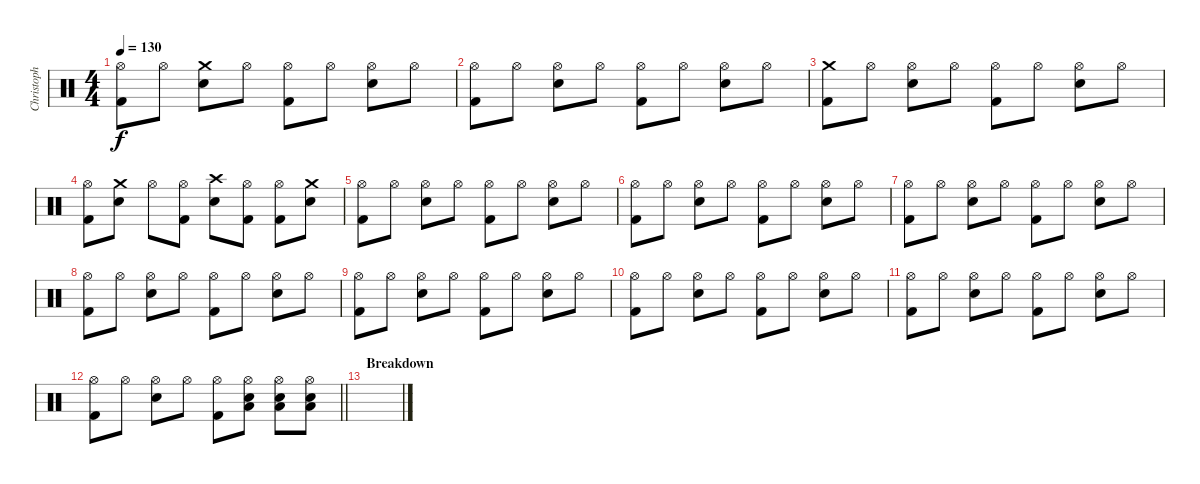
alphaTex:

\track ("Christoph \"Doom\" Schneider" "Christoph ") {instrument percussion}
\staff {score}
\articulation defaults
\ts (4 4)
\tempo 130
\clef neutral
\ks c
("Hi-Hat (open)" "Kick (hit) 2").8{dy f} "Hi-Hat (open)".8 ("Crash medium (hit)" "Electric Snare (hit)").8 "Hi-Hat (open)".8 ("Hi-Hat (open)" "Kick (hit) 2").8 "Hi-Hat (open)".8 ("Hi-Hat (open)" "Electric Snare (hit)").8 "Hi-Hat (open)".8 |
("Hi-Hat (open)" "Kick (hit) 2").8 "Hi-Hat (open)".8 ("Hi-Hat (open)" "Electric Snare (hit)").8 "Hi-Hat (open)".8 ("Hi-Hat (open)" "Kick (hit) 2").8 "Hi-Hat (open)".8 ("Hi-Hat (open)" "Electric Snare (hit)").8 "Hi-Hat (open)".8 |
("Crash medium (hit)" "Kick (hit) 2").8 "Hi-Hat (open)".8 ("Hi-Hat (open)" "Electric Snare (hit)").8 "Hi-Hat (open)".8 ("Hi-Hat (open)" "Kick (hit) 2").8 "Hi-Hat (open)".8 ("Hi-Hat (open)" "Electric Snare (hit)").8 "Hi-Hat (open)".8 |
("Hi-Hat (open)" "Kick (hit) 2").8 ("Crash medium (hit)" "Electric Snare (hit)").8 "Hi-Hat (open)".8 ("Hi-Hat (open)" "Kick (hit) 2").8 ("Crash high (hit)" "Electric Snare (hit)").8 ("Hi-Hat (open)" "Kick (hit) 2").8 ("Hi-Hat (open)" "Kick (hit) 2").8 ("Crash medium (hit)" "Electric Snare (hit)").8 |
("Hi-Hat (open)" "Kick (hit) 2").8 "Hi-Hat (open)".8 ("Hi-Hat (open)" "Electric Snare (hit)").8 "Hi-Hat (open)".8 ("Hi-Hat (open)" "Kick (hit) 2").8 "Hi-Hat (open)".8 ("Hi-Hat (open)" "Electric Snare (hit)").8 "Hi-Hat (open)".8 |
("Hi-Hat (open)" "Kick (hit) 2").8 "Hi-Hat (open)".8 ("Hi-Hat (open)" "Electric Snare (hit)").8 "Hi-Hat (open)".8 ("Hi-Hat (open)" "Kick (hit) 2").8 "Hi-Hat (open)".8 ("Hi-Hat (open)" "Electric Snare (hit)").8 "Hi-Hat (open)".8 |
("Hi-Hat (open)" "Kick (hit) 2").8 "Hi-Hat (open)".8 ("Hi-Hat (open)" "Electric Snare (hit)").8 "Hi-Hat (open)".8 ("Hi-Hat (open)" "Kick (hit) 2").8 "Hi-Hat (open)".8 ("Hi-Hat (open)" "Electric Snare (hit)").8 "Hi-Hat (open)".8 |
("Hi-Hat (open)" "Kick (hit) 2").8 "Hi-Hat (open)".8 ("Hi-Hat (open)" "Electric Snare (hit)").8 "Hi-Hat (open)".8 ("Hi-Hat (open)" "Kick (hit) 2").8 "Hi-Hat (open)".8 ("Hi-Hat (open)" "Electric Snare (hit)").8 "Hi-Hat (open)".8 |
("Hi-Hat (open)" "Kick (hit) 2").8 "Hi-Hat (open)".8 ("Hi-Hat (open)" "Electric Snare (hit)").8 "Hi-Hat (open)".8 ("Hi-Hat (open)" "Kick (hit) 2").8 "Hi-Hat (open)".8 ("Hi-Hat (open)" "Electric Snare (hit)").8 "Hi-Hat (open)".8 |
("Hi-Hat (open)" "Kick (hit) 2").8 "Hi-Hat (open)".8 ("Hi-Hat (open)" "Electric Snare (hit)").8 "Hi-Hat (open)".8 ("Hi-Hat (open)" "Kick (hit) 2").8 "Hi-Hat (open)".8 ("Hi-Hat (open)" "Electric Snare (hit)").8 "Hi-Hat (open)".8 |
("Hi-Hat (open)" "Kick (hit) 2").8 "Hi-Hat (open)".8 ("Hi-Hat (open)" "Electric Snare (hit)").8 "Hi-Hat (open)".8 ("Hi-Hat (open)" "Kick (hit) 2").8 "Hi-Hat (open)".8 ("Hi-Hat (open)" "Electric Snare (hit)").8 "Hi-Hat (open)".8 |
\barLineRight lightlight
("Hi-Hat (open)" "Kick (hit) 2").8 "Hi-Hat (open)".8 ("Hi-Hat (open)" "Electric Snare (hit)").8 "Hi-Hat (open)".8 ("Hi-Hat (open)" "Kick (hit) 2").8 ("Hi-Hat (open)" "Low Floor Tom (hit)" "Electric Snare (hit)").8 ("Hi-Hat (open)" "Low Floor Tom (hit)" "Electric Snare (hit)").8 ("Hi-Hat (open)" "Low Floor Tom (hit)" "Electric Snare (hit)").8 |
\section ("" "Breakdown")
